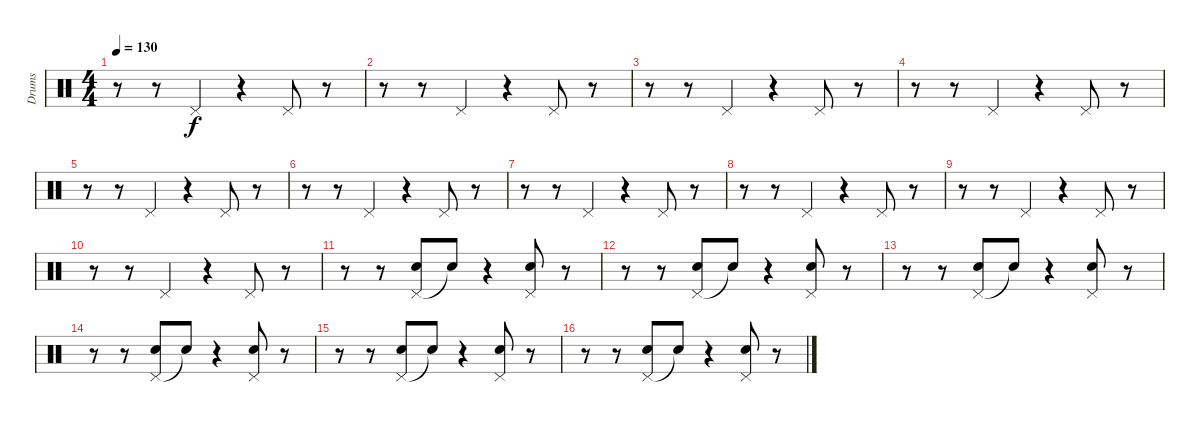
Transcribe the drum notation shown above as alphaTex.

\track ("Drums" "Drums") {instrument percussion}
\staff {score}
\articulation defaults
\ts (4 4)
\tempo 130
\clef neutral
\ks c
r.8{dy f} r.8 "Pedal Hi-Hat (hit)".4 r.4 "Pedal Hi-Hat (hit)".8 r.8 |
r.8 r.8 "Pedal Hi-Hat (hit)".4 r.4 "Pedal Hi-Hat (hit)".8 r.8 |
r.8 r.8 "Pedal Hi-Hat (hit)".4 r.4 "Pedal Hi-Hat (hit)".8 r.8 |
r.8 r.8 "Pedal Hi-Hat (hit)".4 r.4 "Pedal Hi-Hat (hit)".8 r.8 |
r.8 r.8 "Pedal Hi-Hat (hit)".4 r.4 "Pedal Hi-Hat (hit)".8 r.8 |
r.8 r.8 "Pedal Hi-Hat (hit)".4 r.4 "Pedal Hi-Hat (hit)".8 r.8 |
r.8 r.8 "Pedal Hi-Hat (hit)".4 r.4 "Pedal Hi-Hat (hit)".8 r.8 |
r.8 r.8 "Pedal Hi-Hat (hit)".4 r.4 "Pedal Hi-Hat (hit)".8 r.8 |
r.8 r.8 "Pedal Hi-Hat (hit)".4 r.4 "Pedal Hi-Hat (hit)".8 r.8 |
r.8 r.8 "Pedal Hi-Hat (hit)".4 r.4 "Pedal Hi-Hat (hit)".8 r.8 |
r.8 r.8 ("Pedal Hi-Hat (hit)" "Hand Clap (hit)").8 "Snare (hit)"{t}.8 r.4 ("Pedal Hi-Hat (hit)" "Hand Clap (hit)").8 r.8 |
r.8 r.8 ("Pedal Hi-Hat (hit)" "Hand Clap (hit)").8 "Snare (hit)"{t}.8 r.4 ("Pedal Hi-Hat (hit)" "Hand Clap (hit)").8 r.8 |
r.8 r.8 ("Pedal Hi-Hat (hit)" "Hand Clap (hit)").8 "Snare (hit)"{t}.8 r.4 ("Pedal Hi-Hat (hit)" "Hand Clap (hit)").8 r.8 |
r.8 r.8 ("Pedal Hi-Hat (hit)" "Hand Clap (hit)").8 "Snare (hit)"{t}.8 r.4 ("Pedal Hi-Hat (hit)" "Hand Clap (hit)").8 r.8 |
r.8 r.8 ("Pedal Hi-Hat (hit)" "Hand Clap (hit)").8 "Snare (hit)"{t}.8 r.4 ("Pedal Hi-Hat (hit)" "Hand Clap (hit)").8 r.8 |
r.8 r.8 ("Pedal Hi-Hat (hit)" "Hand Clap (hit)").8 "Snare (hit)"{t}.8 r.4 ("Pedal Hi-Hat (hit)" "Hand Clap (hit)").8 r.8
